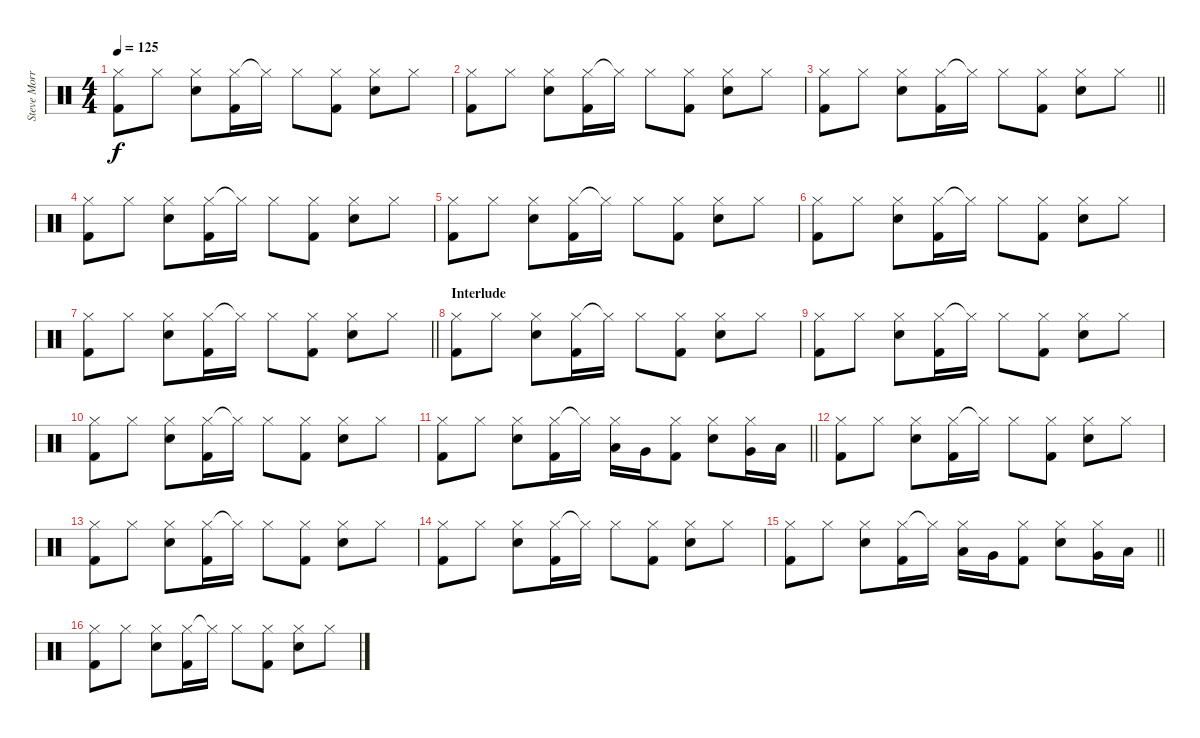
\track ("Steve Morris" "Steve Morr") {instrument percussion}
\staff {score}
\articulation defaults
\ts (4 4)
\tempo 125
\clef neutral
\ks c
("Hi-Hat (closed)" "Kick (hit) 2").8{dy f} "Hi-Hat (closed)".8 ("Hi-Hat (closed)" "Electric Snare (hit)").8 ("Hi-Hat (closed)" "Kick (hit) 2").16 "Hi-Hat (closed)"{t}.16 "Hi-Hat (closed)".8 ("Hi-Hat (closed)" "Kick (hit) 2").8 ("Hi-Hat (closed)" "Electric Snare (hit)").8 "Hi-Hat (closed)".8 |
("Hi-Hat (closed)" "Kick (hit) 2").8 "Hi-Hat (closed)".8 ("Hi-Hat (closed)" "Electric Snare (hit)").8 ("Hi-Hat (closed)" "Kick (hit) 2").16 "Hi-Hat (closed)"{t}.16 "Hi-Hat (closed)".8 ("Hi-Hat (closed)" "Kick (hit) 2").8 ("Hi-Hat (closed)" "Electric Snare (hit)").8 "Hi-Hat (closed)".8 |
\barLineRight lightlight
("Hi-Hat (closed)" "Kick (hit) 2").8 "Hi-Hat (closed)".8 ("Hi-Hat (closed)" "Electric Snare (hit)").8 ("Hi-Hat (closed)" "Kick (hit) 2").16 "Hi-Hat (closed)"{t}.16 "Hi-Hat (closed)".8 ("Hi-Hat (closed)" "Kick (hit) 2").8 ("Hi-Hat (closed)" "Electric Snare (hit)").8 "Hi-Hat (closed)".8 |
("Hi-Hat (closed)" "Kick (hit) 2").8 "Hi-Hat (closed)".8 ("Hi-Hat (closed)" "Electric Snare (hit)").8 ("Hi-Hat (closed)" "Kick (hit) 2").16 "Hi-Hat (closed)"{t}.16 "Hi-Hat (closed)".8 ("Hi-Hat (closed)" "Kick (hit) 2").8 ("Hi-Hat (closed)" "Electric Snare (hit)").8 "Hi-Hat (closed)".8 |
("Hi-Hat (closed)" "Kick (hit) 2").8 "Hi-Hat (closed)".8 ("Hi-Hat (closed)" "Electric Snare (hit)").8 ("Hi-Hat (closed)" "Kick (hit) 2").16 "Hi-Hat (closed)"{t}.16 "Hi-Hat (closed)".8 ("Hi-Hat (closed)" "Kick (hit) 2").8 ("Hi-Hat (closed)" "Electric Snare (hit)").8 "Hi-Hat (closed)".8 |
("Hi-Hat (closed)" "Kick (hit) 2").8 "Hi-Hat (closed)".8 ("Hi-Hat (closed)" "Electric Snare (hit)").8 ("Hi-Hat (closed)" "Kick (hit) 2").16 "Hi-Hat (closed)"{t}.16 "Hi-Hat (closed)".8 ("Hi-Hat (closed)" "Kick (hit) 2").8 ("Hi-Hat (closed)" "Electric Snare (hit)").8 "Hi-Hat (closed)".8 |
\barLineRight lightlight
("Hi-Hat (closed)" "Kick (hit) 2").8 "Hi-Hat (closed)".8 ("Hi-Hat (closed)" "Electric Snare (hit)").8 ("Hi-Hat (closed)" "Kick (hit) 2").16 "Hi-Hat (closed)"{t}.16 "Hi-Hat (closed)".8 ("Hi-Hat (closed)" "Kick (hit) 2").8 ("Hi-Hat (closed)" "Electric Snare (hit)").8 "Hi-Hat (closed)".8 |
\section ("" "Interlude")
("Hi-Hat (closed)" "Kick (hit) 2").8 "Hi-Hat (closed)".8 ("Hi-Hat (closed)" "Electric Snare (hit)").8 ("Hi-Hat (closed)" "Kick (hit) 2").16 "Hi-Hat (closed)"{t}.16 "Hi-Hat (closed)".8 ("Hi-Hat (closed)" "Kick (hit) 2").8 ("Hi-Hat (closed)" "Electric Snare (hit)").8 "Hi-Hat (closed)".8 |
("Hi-Hat (closed)" "Kick (hit) 2").8 "Hi-Hat (closed)".8 ("Hi-Hat (closed)" "Electric Snare (hit)").8 ("Hi-Hat (closed)" "Kick (hit) 2").16 "Hi-Hat (closed)"{t}.16 "Hi-Hat (closed)".8 ("Hi-Hat (closed)" "Kick (hit) 2").8 ("Hi-Hat (closed)" "Electric Snare (hit)").8 "Hi-Hat (closed)".8 |
("Hi-Hat (closed)" "Kick (hit) 2").8 "Hi-Hat (closed)".8 ("Hi-Hat (closed)" "Electric Snare (hit)").8 ("Hi-Hat (closed)" "Kick (hit) 2").16 "Hi-Hat (closed)"{t}.16 "Hi-Hat (closed)".8 ("Hi-Hat (closed)" "Kick (hit) 2").8 ("Hi-Hat (closed)" "Electric Snare (hit)").8 "Hi-Hat (closed)".8 |
\barLineRight lightlight
("Hi-Hat (closed)" "Kick (hit) 2").8 "Hi-Hat (closed)".8 ("Hi-Hat (closed)" "Electric Snare (hit)").8 ("Hi-Hat (closed)" "Kick (hit) 2").16 "Hi-Hat (closed)"{t}.16 ("Hi-Hat (closed)" "Low Tom (hit)").16 "Very Low Tom (hit)".16 ("Hi-Hat (closed)" "Kick (hit) 2").8 ("Hi-Hat (closed)" "Electric Snare (hit)").8 ("Hi-Hat (closed)" "Very Low Tom (hit)").16 "Low Floor Tom (hit)".16 |
("Hi-Hat (closed)" "Kick (hit) 2").8 "Hi-Hat (closed)".8 ("Hi-Hat (closed)" "Electric Snare (hit)").8 ("Hi-Hat (closed)" "Kick (hit) 2").16 "Hi-Hat (closed)"{t}.16 "Hi-Hat (closed)".8 ("Hi-Hat (closed)" "Kick (hit) 2").8 ("Hi-Hat (closed)" "Electric Snare (hit)").8 "Hi-Hat (closed)".8 |
("Hi-Hat (closed)" "Kick (hit) 2").8 "Hi-Hat (closed)".8 ("Hi-Hat (closed)" "Electric Snare (hit)").8 ("Hi-Hat (closed)" "Kick (hit) 2").16 "Hi-Hat (closed)"{t}.16 "Hi-Hat (closed)".8 ("Hi-Hat (closed)" "Kick (hit) 2").8 ("Hi-Hat (closed)" "Electric Snare (hit)").8 "Hi-Hat (closed)".8 |
("Hi-Hat (closed)" "Kick (hit) 2").8 "Hi-Hat (closed)".8 ("Hi-Hat (closed)" "Electric Snare (hit)").8 ("Hi-Hat (closed)" "Kick (hit) 2").16 "Hi-Hat (closed)"{t}.16 "Hi-Hat (closed)".8 ("Hi-Hat (closed)" "Kick (hit) 2").8 ("Hi-Hat (closed)" "Electric Snare (hit)").8 "Hi-Hat (closed)".8 |
\barLineRight lightlight
("Hi-Hat (closed)" "Kick (hit) 2").8 "Hi-Hat (closed)".8 ("Hi-Hat (closed)" "Electric Snare (hit)").8 ("Hi-Hat (closed)" "Kick (hit) 2").16 "Hi-Hat (closed)"{t}.16 ("Hi-Hat (closed)" "Low Tom (hit)").16 "Very Low Tom (hit)".16 ("Hi-Hat (closed)" "Kick (hit) 2").8 ("Hi-Hat (closed)" "Electric Snare (hit)").8 ("Hi-Hat (closed)" "Very Low Tom (hit)").16 "Low Floor Tom (hit)".16 |
("Hi-Hat (closed)" "Kick (hit) 2").8 "Hi-Hat (closed)".8 ("Hi-Hat (closed)" "Electric Snare (hit)").8 ("Hi-Hat (closed)" "Kick (hit) 2").16 "Hi-Hat (closed)"{t}.16 "Hi-Hat (closed)".8 ("Hi-Hat (closed)" "Kick (hit) 2").8 ("Hi-Hat (closed)" "Electric Snare (hit)").8 "Hi-Hat (closed)".8
